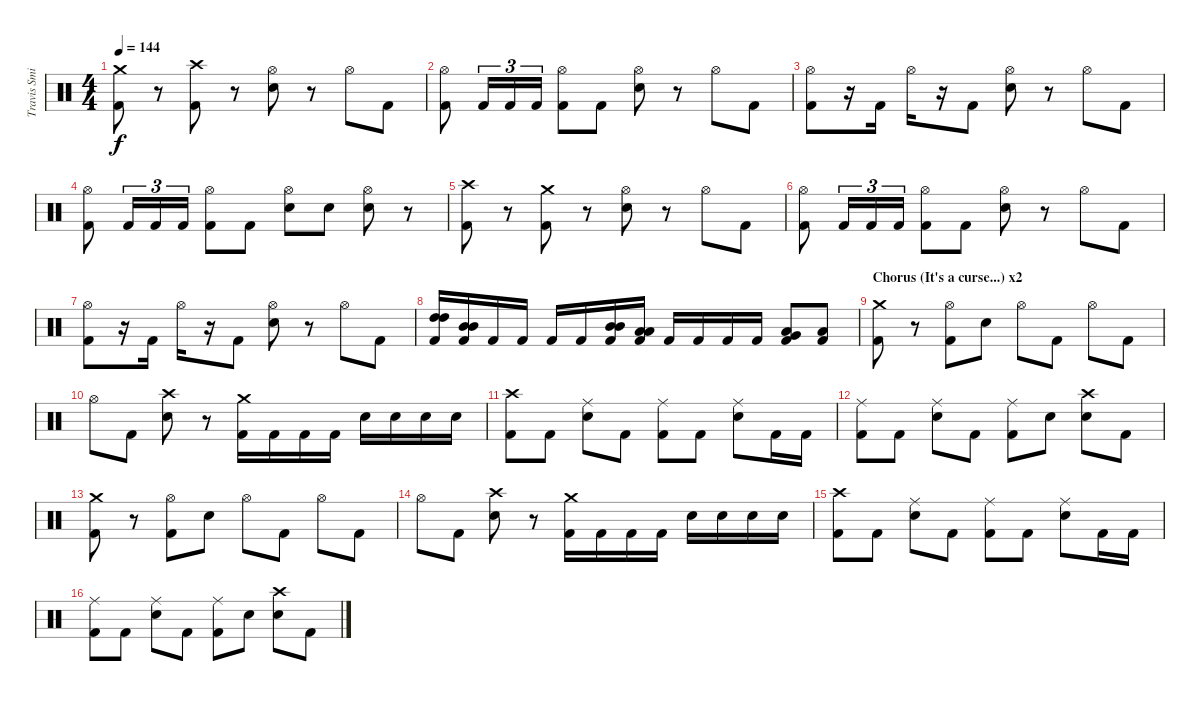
\track ("Travis Smith" "Travis Smi") {instrument percussion}
\staff {score}
\articulation defaults
\ts (4 4)
\tempo 144
\clef neutral
\ks c
("Crash medium (hit)" "Kick (hit) 2").8{dy f} r.8 ("Crash high (hit)" "Kick (hit) 2").8 r.8 ("Hi-Hat (open)" "Electric Snare (hit)").8 r.8 "Hi-Hat (open)".8 "Kick (hit) 2".8 |
("Hi-Hat (open)" "Kick (hit) 2").8 "Kick (hit) 2".16{tu (3 2)} "Kick (hit) 2".16{tu (3 2)} "Kick (hit) 2".16{tu (3 2)} ("Hi-Hat (open)" "Kick (hit) 2").8 "Kick (hit) 2".8 ("Hi-Hat (open)" "Electric Snare (hit)").8 r.8 "Hi-Hat (open)".8 "Kick (hit) 2".8 |
("Hi-Hat (open)" "Kick (hit) 2").8 r.16 "Kick (hit) 2".16 "Hi-Hat (open)".16 r.16 "Kick (hit) 2".8 ("Hi-Hat (open)" "Electric Snare (hit)").8 r.8 "Hi-Hat (open)".8 "Kick (hit) 2".8 |
("Hi-Hat (open)" "Kick (hit) 2").8 "Kick (hit) 2".16{tu (3 2)} "Kick (hit) 2".16{tu (3 2)} "Kick (hit) 2".16{tu (3 2)} ("Hi-Hat (open)" "Kick (hit) 2").8 "Kick (hit) 2".8 ("Hi-Hat (open)" "Electric Snare (hit)").8 "Electric Snare (hit)".8 ("Hi-Hat (open)" "Electric Snare (hit)").8 r.8 |
("Crash high (hit)" "Kick (hit) 2").8 r.8 ("Crash medium (hit)" "Kick (hit) 2").8 r.8 ("Hi-Hat (open)" "Electric Snare (hit)").8 r.8 "Hi-Hat (open)".8 "Kick (hit) 2".8 |
("Hi-Hat (open)" "Kick (hit) 2").8 "Kick (hit) 2".16{tu (3 2)} "Kick (hit) 2".16{tu (3 2)} "Kick (hit) 2".16{tu (3 2)} ("Hi-Hat (open)" "Kick (hit) 2").8 "Kick (hit) 2".8 ("Hi-Hat (open)" "Electric Snare (hit)").8 r.8 "Hi-Hat (open)".8 "Kick (hit) 2".8 |
("Hi-Hat (open)" "Kick (hit) 2").8 r.16 "Kick (hit) 2".16 "Hi-Hat (open)".16 r.16 "Kick (hit) 2".8 ("Hi-Hat (open)" "Electric Snare (hit)").8 r.8 "Hi-Hat (open)".8 "Kick (hit) 2".8 |
("High Tom (hit)" "High Tom (hit)" "Kick (hit) 2").16 ("Mid Tom (hit)" "Mid Tom (hit)" "Kick (hit) 2").16 "Kick (hit) 2".16 "Kick (hit) 2".16 "Kick (hit) 2".16 "Kick (hit) 2".16 ("Mid Tom (hit)" "Mid Tom (hit)" "Kick (hit) 2").16 ("Low Tom (hit)" "Low Tom (hit)" "Kick (hit) 2").16 "Kick (hit) 2".16 "Kick (hit) 2".16 "Kick (hit) 2".16 "Kick (hit) 2".16 ("Very Low Tom (hit)" "Low Tom (hit)" "Kick (hit) 2").8 ("Low Floor Tom (hit)" "Kick (hit) 2").8 |
\section ("" "Chorus (It's a curse...) x2")
("Crash medium (hit)" "Kick (hit) 2").8 r.8 ("Hi-Hat (open)" "Kick (hit) 2").8 "Electric Snare (hit)".8 "Hi-Hat (open)".8 "Kick (hit) 2".8 "Hi-Hat (open)".8 "Kick (hit) 2".8 |
"Hi-Hat (open)".8 "Kick (hit) 2".8 ("Crash high (hit)" "Electric Snare (hit)").8 r.8 ("Crash medium (hit)" "Kick (hit) 2").16 "Kick (hit) 2".16 "Kick (hit) 2".16 "Kick (hit) 2".16 "Electric Snare (hit)".16 "Electric Snare (hit)".16 "Electric Snare (hit)".16 "Electric Snare (hit)".16 |
("Crash high (hit)" "Kick (hit) 2").8 "Kick (hit) 2".8 ("Ride (middle)" "Electric Snare (hit)").8 "Kick (hit) 2".8 ("Ride (middle)" "Kick (hit) 2").8 "Kick (hit) 2".8 ("Ride (middle)" "Electric Snare (hit)").8 "Kick (hit) 2".16 "Kick (hit) 2".16 |
("Ride (middle)" "Kick (hit) 2").8 "Kick (hit) 2".8 ("Ride (middle)" "Electric Snare (hit)").8 "Kick (hit) 2".8 ("Ride (middle)" "Kick (hit) 2").8 "Electric Snare (hit)".8 ("Crash high (hit)" "Electric Snare (hit)").8 "Kick (hit) 2".8 |
("Crash medium (hit)" "Kick (hit) 2").8 r.8 ("Hi-Hat (open)" "Kick (hit) 2").8 "Electric Snare (hit)".8 "Hi-Hat (open)".8 "Kick (hit) 2".8 "Hi-Hat (open)".8 "Kick (hit) 2".8 |
"Hi-Hat (open)".8 "Kick (hit) 2".8 ("Crash high (hit)" "Electric Snare (hit)").8 r.8 ("Crash medium (hit)" "Kick (hit) 2").16 "Kick (hit) 2".16 "Kick (hit) 2".16 "Kick (hit) 2".16 "Electric Snare (hit)".16 "Electric Snare (hit)".16 "Electric Snare (hit)".16 "Electric Snare (hit)".16 |
("Crash high (hit)" "Kick (hit) 2").8 "Kick (hit) 2".8 ("Ride (middle)" "Electric Snare (hit)").8 "Kick (hit) 2".8 ("Ride (middle)" "Kick (hit) 2").8 "Kick (hit) 2".8 ("Ride (middle)" "Electric Snare (hit)").8 "Kick (hit) 2".16 "Kick (hit) 2".16 |
("Ride (middle)" "Kick (hit) 2").8 "Kick (hit) 2".8 ("Ride (middle)" "Electric Snare (hit)").8 "Kick (hit) 2".8 ("Ride (middle)" "Kick (hit) 2").8 "Electric Snare (hit)".8 ("Crash high (hit)" "Electric Snare (hit)").8 "Kick (hit) 2".8
